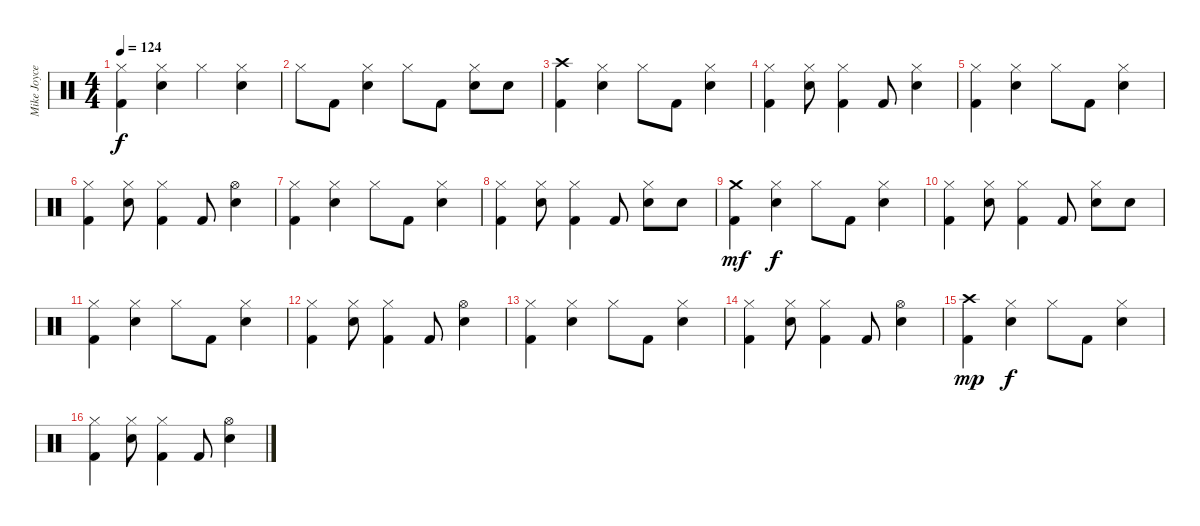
\track ("Mike Joyce" "Mike Joyce") {instrument percussion}
\staff {score}
\articulation defaults
\ts (4 4)
\tempo 124
\clef neutral
\ks c
("Hi-Hat (closed)" "Kick (hit) 2").4{dy f} ("Hi-Hat (closed)" "Electric Snare (hit)").4 "Hi-Hat (closed)".4 ("Hi-Hat (closed)" "Electric Snare (hit)").4 |
"Hi-Hat (closed)".8 "Kick (hit) 2".8 ("Hi-Hat (closed)" "Electric Snare (hit)").4 "Hi-Hat (closed)".8 "Kick (hit) 2".8 ("Hi-Hat (closed)" "Electric Snare (hit)").8 "Electric Snare (hit)".8 |
("Crash high (hit)" "Kick (hit) 2").4 ("Hi-Hat (closed)" "Electric Snare (hit)").4 "Hi-Hat (closed)".8 "Kick (hit) 2".8 ("Hi-Hat (closed)" "Electric Snare (hit)").4 |
("Hi-Hat (closed)" "Kick (hit) 2").4 ("Hi-Hat (closed)" "Electric Snare (hit)").8 ("Hi-Hat (closed)" "Kick (hit) 2").4 "Kick (hit) 2".8 ("Hi-Hat (closed)" "Electric Snare (hit)").4 |
("Hi-Hat (closed)" "Kick (hit) 2").4 ("Hi-Hat (closed)" "Electric Snare (hit)").4 "Hi-Hat (closed)".8 "Kick (hit) 2".8 ("Hi-Hat (closed)" "Electric Snare (hit)").4 |
("Hi-Hat (closed)" "Kick (hit) 2").4 ("Hi-Hat (closed)" "Electric Snare (hit)").8 ("Hi-Hat (closed)" "Kick (hit) 2").4 "Kick (hit) 2".8 ("Hi-Hat (open)" "Electric Snare (hit)").4 |
("Hi-Hat (closed)" "Kick (hit) 2").4 ("Hi-Hat (closed)" "Electric Snare (hit)").4 "Hi-Hat (closed)".8 "Kick (hit) 2".8 ("Hi-Hat (closed)" "Electric Snare (hit)").4 |
("Hi-Hat (closed)" "Kick (hit) 2").4 ("Hi-Hat (closed)" "Electric Snare (hit)").8 ("Hi-Hat (closed)" "Kick (hit) 2").4 "Kick (hit) 2".8 ("Hi-Hat (closed)" "Electric Snare (hit)").8 "Electric Snare (hit)".8 |
("Crash medium (hit)" "Kick (hit) 2").4{dy mf} ("Hi-Hat (closed)" "Electric Snare (hit)").4{dy f} "Hi-Hat (closed)".8 "Kick (hit) 2".8 ("Hi-Hat (closed)" "Electric Snare (hit)").4 |
("Hi-Hat (closed)" "Kick (hit) 2").4 ("Hi-Hat (closed)" "Electric Snare (hit)").8 ("Hi-Hat (closed)" "Kick (hit) 2").4 "Kick (hit) 2".8 ("Hi-Hat (closed)" "Electric Snare (hit)").8 "Electric Snare (hit)".8 |
("Hi-Hat (closed)" "Kick (hit) 2").4 ("Hi-Hat (closed)" "Electric Snare (hit)").4 "Hi-Hat (closed)".8 "Kick (hit) 2".8 ("Hi-Hat (closed)" "Electric Snare (hit)").4 |
("Hi-Hat (closed)" "Kick (hit) 2").4 ("Hi-Hat (closed)" "Electric Snare (hit)").8 ("Hi-Hat (closed)" "Kick (hit) 2").4 "Kick (hit) 2".8 ("Hi-Hat (open)" "Electric Snare (hit)").4 |
("Hi-Hat (closed)" "Kick (hit) 2").4 ("Hi-Hat (closed)" "Electric Snare (hit)").4 "Hi-Hat (closed)".8 "Kick (hit) 2".8 ("Hi-Hat (closed)" "Electric Snare (hit)").4 |
("Hi-Hat (closed)" "Kick (hit) 2").4 ("Hi-Hat (closed)" "Electric Snare (hit)").8 ("Hi-Hat (closed)" "Kick (hit) 2").4 "Kick (hit) 2".8 ("Hi-Hat (open)" "Electric Snare (hit)").4 |
("Crash high (hit)" "Kick (hit) 2").4{dy mp} ("Hi-Hat (closed)" "Electric Snare (hit)").4{dy f} "Hi-Hat (closed)".8 "Kick (hit) 2".8 ("Hi-Hat (closed)" "Electric Snare (hit)").4 |
("Hi-Hat (closed)" "Kick (hit) 2").4 ("Hi-Hat (closed)" "Electric Snare (hit)").8 ("Hi-Hat (closed)" "Kick (hit) 2").4 "Kick (hit) 2".8 ("Hi-Hat (open)" "Electric Snare (hit)").4
